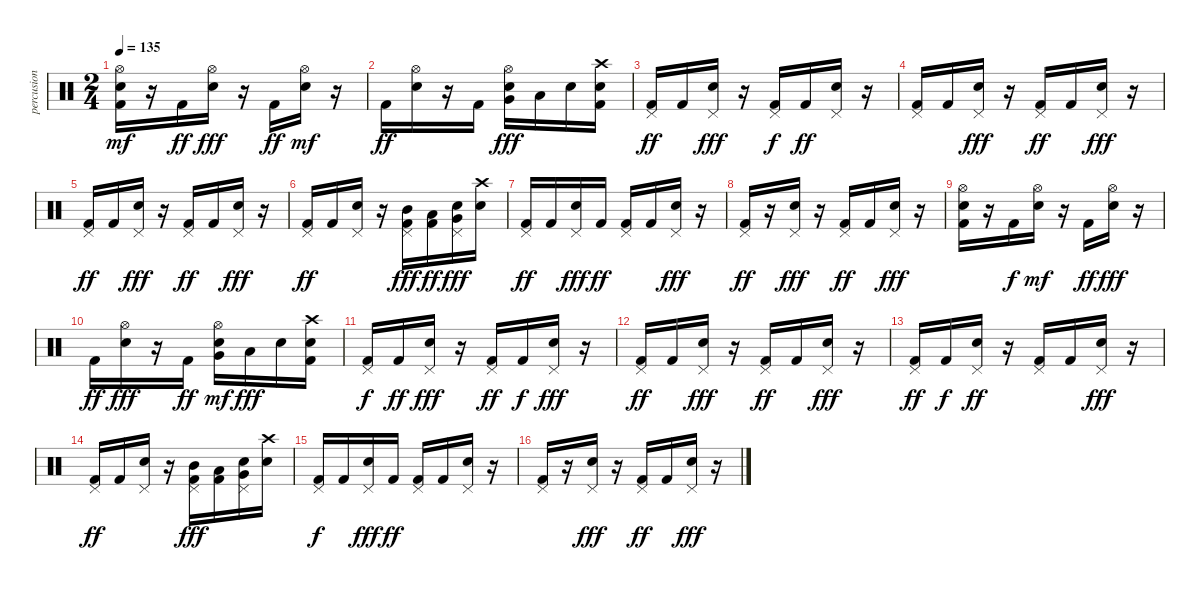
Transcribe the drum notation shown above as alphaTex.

\track ("percusion" "percusion") {instrument percussion}
\staff {score}
\articulation defaults
\ts (2 4)
\tempo 135
\clef neutral
\ks c
("Kick (hit) 2" "Electric Snare (hit)" "Hi-Hat (open)").16{dy mf} r.16 "Kick (hit) 2".16{dy ff} ("Electric Snare (hit)" "Hi-Hat (open)").16{dy fff} r.16 "Kick (hit) 2".16{dy ff} ("Electric Snare (hit)" "Hi-Hat (open)").16{dy mf} r.16 |
"Kick (hit) 2".16{dy ff} ("Electric Snare (hit)" "Hi-Hat (open)").16 r.16 "Kick (hit) 2".16 ("Electric Snare (hit)" "Very Low Tom (hit)" "Hi-Hat (open)").16{dy fff} "Low Floor Tom (hit)".16 "Electric Snare (hit)".16 ("Kick (hit) 2" "Electric Snare (hit)" "Crash high (hit)").16 |
("Kick (hit) 2" "Pedal Hi-Hat (hit)").16{dy ff} "Kick (hit) 2".16 ("Electric Snare (hit)" "Pedal Hi-Hat (hit)").16{dy fff} r.16 ("Kick (hit) 2" "Pedal Hi-Hat (hit)").16{dy f} "Kick (hit) 2".16{dy ff} ("Electric Snare (hit)" "Pedal Hi-Hat (hit)").16 r.16 |
("Kick (hit) 2" "Pedal Hi-Hat (hit)").16 "Kick (hit) 2".16 ("Electric Snare (hit)" "Pedal Hi-Hat (hit)").16{dy fff} r.16 ("Kick (hit) 2" "Pedal Hi-Hat (hit)").16{dy ff} "Kick (hit) 2".16 ("Electric Snare (hit)" "Pedal Hi-Hat (hit)").16{dy fff} r.16 |
("Kick (hit) 2" "Pedal Hi-Hat (hit)").16{dy ff} "Kick (hit) 2".16 ("Electric Snare (hit)" "Pedal Hi-Hat (hit)").16{dy fff} r.16 ("Kick (hit) 2" "Pedal Hi-Hat (hit)").16{dy ff} "Kick (hit) 2".16 ("Electric Snare (hit)" "Pedal Hi-Hat (hit)").16{dy fff} r.16 |
("Kick (hit) 2" "Pedal Hi-Hat (hit)").16{dy ff} "Kick (hit) 2".16 ("Electric Snare (hit)" "Pedal Hi-Hat (hit)").16 r.16 ("Kick (hit) 2" "Mid Tom (hit)" "Pedal Hi-Hat (hit)").16{dy fff} ("Kick (hit) 2" "Low Tom (hit)").16{dy ff} ("Electric Snare (hit)" "Very Low Tom (hit)" "Pedal Hi-Hat (hit)").16{dy fff} ("Electric Snare (hit)" "Crash high (hit)").16 |
("Kick (hit) 2" "Pedal Hi-Hat (hit)").16{dy ff} "Kick (hit) 2".16 ("Electric Snare (hit)" "Pedal Hi-Hat (hit)").16{dy fff} "Kick (hit) 2".16{dy ff} ("Kick (hit) 2" "Pedal Hi-Hat (hit)").16 "Kick (hit) 2".16 ("Electric Snare (hit)" "Pedal Hi-Hat (hit)").16{dy fff} r.16 |
("Kick (hit) 2" "Pedal Hi-Hat (hit)").16{dy ff} r.16 ("Electric Snare (hit)" "Pedal Hi-Hat (hit)").16{dy fff} r.16 ("Kick (hit) 2" "Pedal Hi-Hat (hit)").16{dy ff} "Kick (hit) 2".16 ("Electric Snare (hit)" "Pedal Hi-Hat (hit)").16{dy fff} r.16 |
("Kick (hit) 2" "Electric Snare (hit)" "Hi-Hat (open)").16 r.16 "Kick (hit) 2".16{dy f} ("Electric Snare (hit)" "Hi-Hat (open)").16{dy mf} r.16 "Kick (hit) 2".16{dy ff} ("Electric Snare (hit)" "Hi-Hat (open)").16{dy fff} r.16 |
"Kick (hit) 2".16{dy ff} ("Electric Snare (hit)" "Hi-Hat (open)").16{dy fff} r.16 "Kick (hit) 2".16{dy ff} ("Electric Snare (hit)" "Very Low Tom (hit)" "Hi-Hat (open)").16{dy mf} "Low Floor Tom (hit)".16{dy fff} "Electric Snare (hit)".16 ("Kick (hit) 2" "Electric Snare (hit)" "Crash high (hit)").16 |
("Kick (hit) 2" "Pedal Hi-Hat (hit)").16{dy f} "Kick (hit) 2".16{dy ff} ("Electric Snare (hit)" "Pedal Hi-Hat (hit)").16{dy fff} r.16 ("Kick (hit) 2" "Pedal Hi-Hat (hit)").16{dy ff} "Kick (hit) 2".16{dy f} ("Electric Snare (hit)" "Pedal Hi-Hat (hit)").16{dy fff} r.16 |
("Kick (hit) 2" "Pedal Hi-Hat (hit)").16{dy ff} "Kick (hit) 2".16 ("Electric Snare (hit)" "Pedal Hi-Hat (hit)").16{dy fff} r.16 ("Kick (hit) 2" "Pedal Hi-Hat (hit)").16{dy ff} "Kick (hit) 2".16 ("Electric Snare (hit)" "Pedal Hi-Hat (hit)").16{dy fff} r.16 |
("Kick (hit) 2" "Pedal Hi-Hat (hit)").16{dy ff} "Kick (hit) 2".16{dy f} ("Electric Snare (hit)" "Pedal Hi-Hat (hit)").16{dy ff} r.16 ("Kick (hit) 2" "Pedal Hi-Hat (hit)").16 "Kick (hit) 2".16 ("Electric Snare (hit)" "Pedal Hi-Hat (hit)").16{dy fff} r.16 |
("Kick (hit) 2" "Pedal Hi-Hat (hit)").16{dy ff} "Kick (hit) 2".16 ("Electric Snare (hit)" "Pedal Hi-Hat (hit)").16 r.16 ("Kick (hit) 2" "Mid Tom (hit)" "Pedal Hi-Hat (hit)").16{dy fff} ("Kick (hit) 2" "Low Tom (hit)").16 ("Electric Snare (hit)" "Very Low Tom (hit)" "Pedal Hi-Hat (hit)").16 ("Electric Snare (hit)" "Crash high (hit)").16 |
("Kick (hit) 2" "Pedal Hi-Hat (hit)").16{dy f} "Kick (hit) 2".16 ("Electric Snare (hit)" "Pedal Hi-Hat (hit)").16{dy fff} "Kick (hit) 2".16{dy ff} ("Kick (hit) 2" "Pedal Hi-Hat (hit)").16 "Kick (hit) 2".16 ("Electric Snare (hit)" "Pedal Hi-Hat (hit)").16 r.16 |
("Kick (hit) 2" "Pedal Hi-Hat (hit)").16 r.16 ("Electric Snare (hit)" "Pedal Hi-Hat (hit)").16{dy fff} r.16 ("Kick (hit) 2" "Pedal Hi-Hat (hit)").16{dy ff} "Kick (hit) 2".16 ("Electric Snare (hit)" "Pedal Hi-Hat (hit)").16{dy fff} r.16
